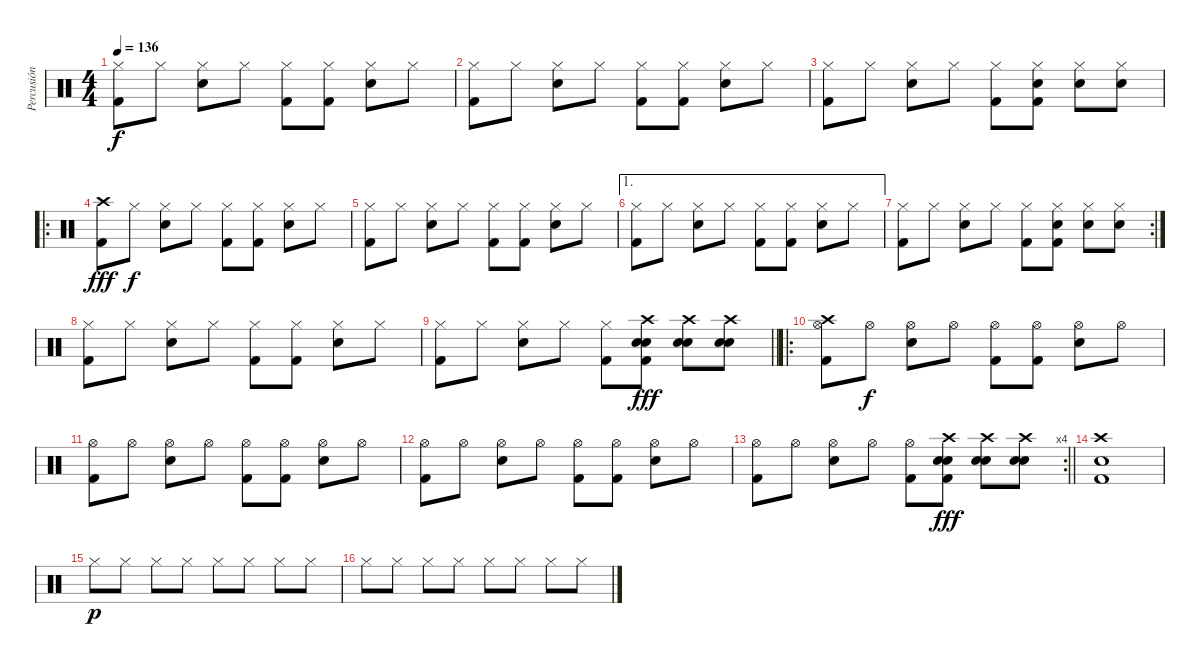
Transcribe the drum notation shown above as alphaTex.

\track ("Percusión" "Percusión") {instrument percussion}
\staff {score}
\articulation defaults
\ts (4 4)
\tempo 136
\clef neutral
\ks c
("Hi-Hat (closed)" "Kick (hit) 2").8{dy f} "Hi-Hat (closed)".8 ("Hi-Hat (closed)" "Snare (hit) 2").8 "Hi-Hat (closed)".8 ("Hi-Hat (closed)" "Kick (hit) 2").8 ("Hi-Hat (closed)" "Kick (hit) 2").8 ("Hi-Hat (closed)" "Snare (hit) 2").8 "Hi-Hat (closed)".8 |
("Hi-Hat (closed)" "Kick (hit) 2").8 "Hi-Hat (closed)".8 ("Hi-Hat (closed)" "Snare (hit) 2").8 "Hi-Hat (closed)".8 ("Hi-Hat (closed)" "Kick (hit) 2").8 ("Hi-Hat (closed)" "Kick (hit) 2").8 ("Hi-Hat (closed)" "Snare (hit) 2").8 "Hi-Hat (closed)".8 |
("Hi-Hat (closed)" "Kick (hit) 2").8 "Hi-Hat (closed)".8 ("Hi-Hat (closed)" "Snare (hit) 2").8 "Hi-Hat (closed)".8 ("Hi-Hat (closed)" "Kick (hit) 2").8 ("Hi-Hat (closed)" "Snare (hit) 2" "Kick (hit) 2").8 ("Hi-Hat (closed)" "Snare (hit) 2").8 ("Hi-Hat (closed)" "Snare (hit) 2").8 |
\ro
("Crash high (hit)" "Kick (hit) 2").8{dy fff} "Hi-Hat (closed)".8{dy f} ("Hi-Hat (closed)" "Snare (hit) 2").8 "Hi-Hat (closed)".8 ("Hi-Hat (closed)" "Kick (hit) 2").8 ("Hi-Hat (closed)" "Kick (hit) 2").8 ("Hi-Hat (closed)" "Snare (hit) 2").8 "Hi-Hat (closed)".8 |
("Hi-Hat (closed)" "Kick (hit) 2").8 "Hi-Hat (closed)".8 ("Hi-Hat (closed)" "Snare (hit) 2").8 "Hi-Hat (closed)".8 ("Hi-Hat (closed)" "Kick (hit) 2").8 ("Hi-Hat (closed)" "Kick (hit) 2").8 ("Hi-Hat (closed)" "Snare (hit) 2").8 "Hi-Hat (closed)".8 |
\ae 1
("Hi-Hat (closed)" "Kick (hit) 2").8 "Hi-Hat (closed)".8 ("Hi-Hat (closed)" "Snare (hit) 2").8 "Hi-Hat (closed)".8 ("Hi-Hat (closed)" "Kick (hit) 2").8 ("Hi-Hat (closed)" "Kick (hit) 2").8 ("Hi-Hat (closed)" "Snare (hit) 2").8 "Hi-Hat (closed)".8 |
\rc 2
("Hi-Hat (closed)" "Kick (hit) 2").8 "Hi-Hat (closed)".8 ("Hi-Hat (closed)" "Snare (hit) 2").8 "Hi-Hat (closed)".8 ("Hi-Hat (closed)" "Kick (hit) 2").8 ("Hi-Hat (closed)" "Snare (hit) 2" "Kick (hit) 2").8 ("Hi-Hat (closed)" "Snare (hit) 2").8 ("Hi-Hat (closed)" "Snare (hit) 2").8 |
("Hi-Hat (closed)" "Kick (hit) 2").8 "Hi-Hat (closed)".8 ("Hi-Hat (closed)" "Snare (hit) 2").8 "Hi-Hat (closed)".8 ("Hi-Hat (closed)" "Kick (hit) 2").8 ("Hi-Hat (closed)" "Kick (hit) 2").8 ("Hi-Hat (closed)" "Snare (hit) 2").8 "Hi-Hat (closed)".8 |
\barLineRight lightlight
("Hi-Hat (closed)" "Kick (hit) 2").8 "Hi-Hat (closed)".8 ("Hi-Hat (closed)" "Snare (hit) 2").8 "Hi-Hat (closed)".8 ("Hi-Hat (closed)" "Kick (hit) 2").8 ("Crash high (hit)" "Electric Snare (hit)" "Snare (hit) 2" "Kick (hit) 2").8{dy fff} ("Crash high (hit)" "Electric Snare (hit)" "Snare (hit) 2").8 ("Crash high (hit)" "Electric Snare (hit)" "Snare (hit) 2").8 |
\ro
("Crash high (hit)" "Hi-Hat (open)" "Kick (hit) 2").8 "Hi-Hat (open)".8{dy f} ("Hi-Hat (open)" "Snare (hit) 2").8 "Hi-Hat (open)".8 ("Hi-Hat (open)" "Kick (hit) 2").8 ("Hi-Hat (open)" "Kick (hit) 2").8 ("Hi-Hat (open)" "Snare (hit) 2").8 "Hi-Hat (open)".8 |
("Hi-Hat (open)" "Kick (hit) 2").8 "Hi-Hat (open)".8 ("Hi-Hat (open)" "Snare (hit) 2").8 "Hi-Hat (open)".8 ("Hi-Hat (open)" "Kick (hit) 2").8 ("Hi-Hat (open)" "Kick (hit) 2").8 ("Hi-Hat (open)" "Snare (hit) 2").8 "Hi-Hat (open)".8 |
("Hi-Hat (open)" "Kick (hit) 2").8 "Hi-Hat (open)".8 ("Hi-Hat (open)" "Snare (hit) 2").8 "Hi-Hat (open)".8 ("Hi-Hat (open)" "Kick (hit) 2").8 ("Hi-Hat (open)" "Kick (hit) 2").8 ("Hi-Hat (open)" "Snare (hit) 2").8 "Hi-Hat (open)".8 |
\rc 4
\barLineRight lightlight
("Hi-Hat (open)" "Kick (hit) 2").8 "Hi-Hat (open)".8 ("Hi-Hat (open)" "Snare (hit) 2").8 "Hi-Hat (open)".8 ("Hi-Hat (open)" "Kick (hit) 2").8 ("Crash high (hit)" "Electric Snare (hit)" "Snare (hit) 2" "Kick (hit) 2").8{dy fff} ("Crash high (hit)" "Electric Snare (hit)" "Snare (hit) 2").8 ("Crash high (hit)" "Electric Snare (hit)" "Snare (hit) 2").8 |
("Crash high (hit)" "Snare (hit) 2" "Kick (hit) 2").1 |
"Hi-Hat (closed)".8{dy p} "Hi-Hat (closed)".8 "Hi-Hat (closed)".8 "Hi-Hat (closed)".8 "Hi-Hat (closed)".8 "Hi-Hat (closed)".8 "Hi-Hat (closed)".8 "Hi-Hat (closed)".8 |
"Hi-Hat (closed)".8 "Hi-Hat (closed)".8 "Hi-Hat (closed)".8 "Hi-Hat (closed)".8 "Hi-Hat (closed)".8 "Hi-Hat (closed)".8 "Hi-Hat (closed)".8 "Hi-Hat (closed)".8
